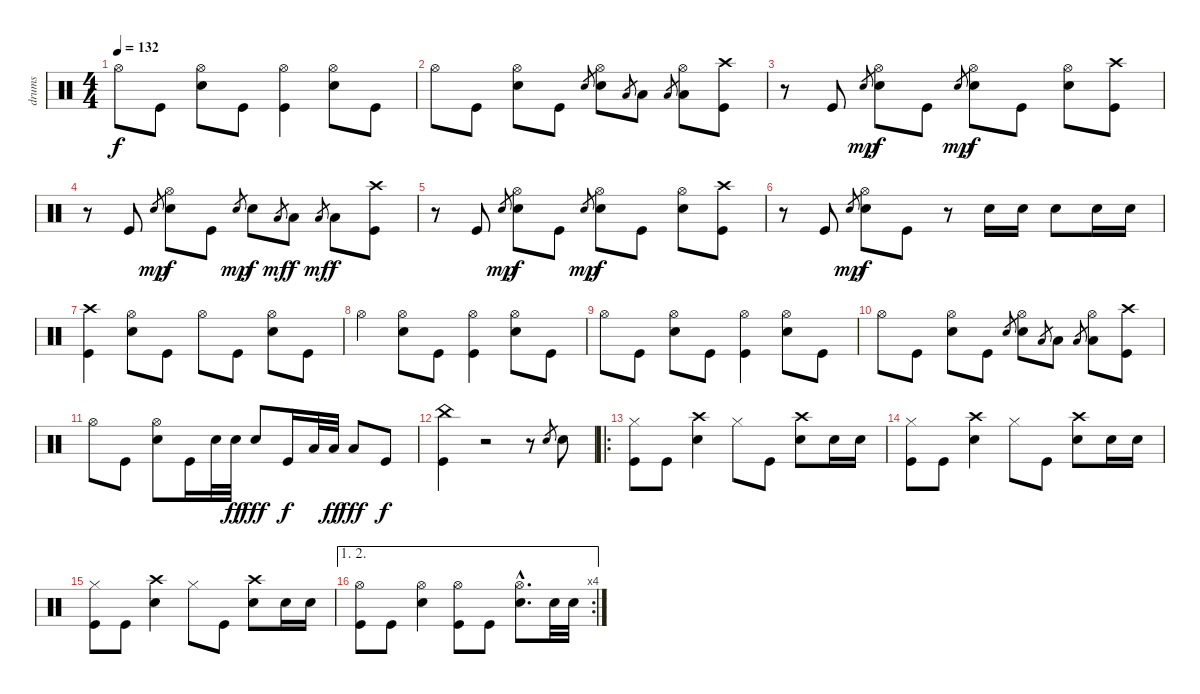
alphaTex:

\track ("drums" "drums") {instrument percussion}
\staff {score}
\articulation defaults
\ts (4 4)
\tempo 132
\clef neutral
\ks c "Hi-Hat (open)".8{dy f} "Kick (hit)".8
("Hi-Hat (open)" "Electric Snare (hit)").8 "Kick (hit)".8 ("Hi-Hat (open)" "Kick (hit)").4 ("Hi-Hat (open)" "Electric Snare (hit)").8 "Kick (hit)".8 |
"Hi-Hat (open)".8 "Kick (hit)".8 ("Hi-Hat (open)" "Electric Snare (hit)").8 "Kick (hit)".8 "Electric Snare (hit)".8{gr} ("Hi-Hat (open)" "Electric Snare (hit)").8 "Low Tom (hit)".8{gr} "Low Tom (hit)".8 "Low Floor Tom (hit)".8{gr} ("Hi-Hat (open)" "Low Floor Tom (hit)").8 ("Crash high (hit)" "Kick (hit)").8 |
r.8 "Kick (hit)".8 "Electric Snare (hit)".8{gr dy mp} ("Hi-Hat (open)" "Electric Snare (hit)").8{dy f} "Kick (hit)".8 "Electric Snare (hit)".8{gr dy mp} ("Hi-Hat (open)" "Electric Snare (hit)").8{dy f} "Kick (hit)".8 ("Hi-Hat (open)" "Electric Snare (hit)").8 ("Crash high (hit)" "Kick (hit)").8 |
r.8 "Kick (hit)".8 "Electric Snare (hit)".8{gr dy mp} ("Hi-Hat (open)" "Electric Snare (hit)").8{dy f} "Kick (hit)".8 "Electric Snare (hit)".8{gr dy mp} "Electric Snare (hit)".8{dy f} "Low Tom (hit)".8{gr dy mf} "Low Tom (hit)".8{dy f} "Low Floor Tom (hit)".8{gr dy mf} "Low Floor Tom (hit)".8{dy f} ("Crash high (hit)" "Kick (hit)").8 |
r.8 "Kick (hit)".8 "Electric Snare (hit)".8{gr dy mp} ("Hi-Hat (open)" "Electric Snare (hit)").8{dy f} "Kick (hit)".8 "Electric Snare (hit)".8{gr dy mp} ("Hi-Hat (open)" "Electric Snare (hit)").8{dy f} "Kick (hit)".8 ("Hi-Hat (open)" "Electric Snare (hit)").8 ("Crash high (hit)" "Kick (hit)").8 |
r.8 "Kick (hit)".8 "Electric Snare (hit)".8{gr dy mp} ("Hi-Hat (open)" "Electric Snare (hit)").8{dy f} "Kick (hit)".8 r.8 "Electric Snare (hit)".16 "Electric Snare (hit)".16 "Electric Snare (hit)".8 "Electric Snare (hit)".16 "Electric Snare (hit)".16 |
("Crash high (hit)" "Kick (hit)").4 ("Hi-Hat (open)" "Electric Snare (hit)").8 "Kick (hit)".8 "Hi-Hat (open)".8 "Kick (hit)".8 ("Hi-Hat (open)" "Electric Snare (hit)").8 "Kick (hit)".8 |
"Hi-Hat (open)".4 ("Hi-Hat (open)" "Electric Snare (hit)").8 "Kick (hit)".8 ("Hi-Hat (open)" "Kick (hit)").4 ("Hi-Hat (open)" "Electric Snare (hit)").8 "Kick (hit)".8 |
"Hi-Hat (open)".8 "Kick (hit)".8 ("Hi-Hat (open)" "Electric Snare (hit)").8 "Kick (hit)".8 ("Hi-Hat (open)" "Kick (hit)").4 ("Hi-Hat (open)" "Electric Snare (hit)").8 "Kick (hit)".8 |
"Hi-Hat (open)".8 "Kick (hit)".8 ("Hi-Hat (open)" "Electric Snare (hit)").8 "Kick (hit)".8 "Electric Snare (hit)".8{gr} ("Hi-Hat (open)" "Electric Snare (hit)").8 "Low Tom (hit)".8{gr} "Low Tom (hit)".8 "Low Floor Tom (hit)".8{gr} ("Hi-Hat (open)" "Low Floor Tom (hit)").8 ("Crash high (hit)" "Kick (hit)").8 |
"Hi-Hat (open)".8 "Kick (hit)".8 ("Hi-Hat (open)" "Electric Snare (hit)").8 "Kick (hit)".16 "Electric Snare (hit)".32 "Electric Snare (hit)".32{dy ff} "Electric Snare (hit)".8{dy fff} "Kick (hit)".16{dy f} "Low Tom (hit)".32 "Low Tom (hit)".32{dy ff} "Low Floor Tom (hit)".8{dy fff} "Kick (hit)".8{dy f} |
("China (hit)" "Kick (hit)").4 r.2 r.8 "Electric Snare (hit)".8{gr} "Electric Snare (hit)".8 |
\ro
("Hi-Hat (closed)" "Kick (hit)").8 "Kick (hit)".8 ("Crash high (hit)" "Electric Snare (hit)").4 "Hi-Hat (closed)".8 "Kick (hit)".8 ("Crash high (hit)" "Electric Snare (hit)").8 "Electric Snare (hit)".16 "Electric Snare (hit)".16 |
("Hi-Hat (closed)" "Kick (hit)").8 "Kick (hit)".8 ("Crash high (hit)" "Electric Snare (hit)").4 "Hi-Hat (closed)".8 "Kick (hit)".8 ("Crash high (hit)" "Electric Snare (hit)").8 "Electric Snare (hit)".16 "Electric Snare (hit)".16 |
("Hi-Hat (closed)" "Kick (hit)").8 "Kick (hit)".8 ("Crash high (hit)" "Electric Snare (hit)").4 "Hi-Hat (closed)".8 "Kick (hit)".8 ("Crash high (hit)" "Electric Snare (hit)").8 "Electric Snare (hit)".16 "Electric Snare (hit)".16 |
\ae (1 2)
\rc 4
("Hi-Hat (open)" "Kick (hit)").8 "Kick (hit)".8 ("Hi-Hat (open)" "Electric Snare (hit)").4 ("Hi-Hat (open)" "Kick (hit)").8 "Kick (hit)".8 ("Hi-Hat (open)"{hac} "Electric Snare (hit)"{hac}).8{d} "Electric Snare (hit)".32 "Electric Snare (hit)".32
